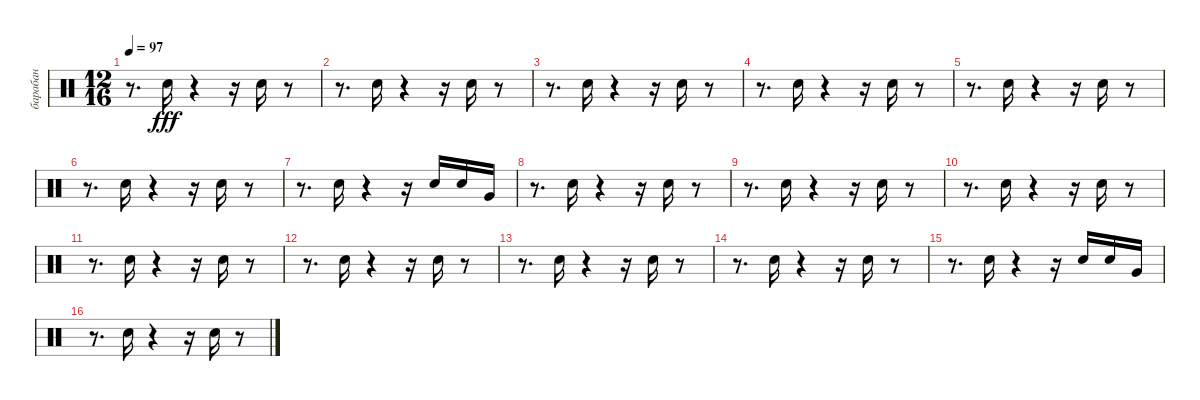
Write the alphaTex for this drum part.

\track ("барабан" "барабан") {instrument percussion}
\staff {score}
\articulation defaults
\ts (12 16)
\tempo 97
\clef neutral
\ks c
r.8{d dy fff} "Snare (hit) 2".16 r.4 r.16 "Snare (hit) 2".16 r.8 |
r.8{d} "Snare (hit) 2".16 r.4 r.16 "Snare (hit) 2".16 r.8 |
r.8{d} "Snare (hit) 2".16 r.4 r.16 "Snare (hit) 2".16 r.8 |
r.8{d} "Snare (hit) 2".16 r.4 r.16 "Snare (hit) 2".16 r.8 |
r.8{d} "Snare (hit) 2".16 r.4 r.16 "Snare (hit) 2".16 r.8 |
r.8{d} "Snare (hit) 2".16 r.4 r.16 "Snare (hit) 2".16 r.8 |
r.8{d} "Snare (hit) 2".16 r.4 r.16 "Snare (hit) 2".16 "Snare (hit) 2".16 "Very Low Tom (hit)".16 |
r.8{d} "Snare (hit) 2".16 r.4 r.16 "Snare (hit) 2".16 r.8 |
r.8{d} "Snare (hit) 2".16 r.4 r.16 "Snare (hit) 2".16 r.8 |
r.8{d} "Snare (hit) 2".16 r.4 r.16 "Snare (hit) 2".16 r.8 |
r.8{d} "Snare (hit) 2".16 r.4 r.16 "Snare (hit) 2".16 r.8 |
r.8{d} "Snare (hit) 2".16 r.4 r.16 "Snare (hit) 2".16 r.8 |
r.8{d} "Snare (hit) 2".16 r.4 r.16 "Snare (hit) 2".16 r.8 |
r.8{d} "Snare (hit) 2".16 r.4 r.16 "Snare (hit) 2".16 r.8 |
r.8{d} "Snare (hit) 2".16 r.4 r.16 "Snare (hit) 2".16 "Snare (hit) 2".16 "Very Low Tom (hit)".16 |
r.8{d} "Snare (hit) 2".16 r.4 r.16 "Snare (hit) 2".16 r.8
